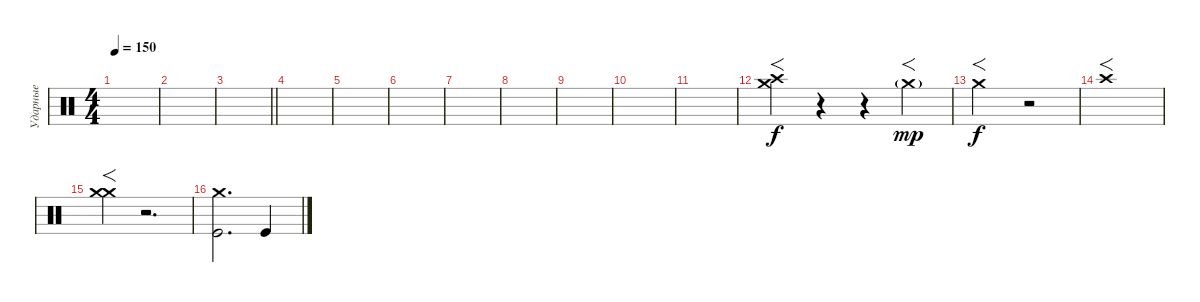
\track ("Ударные" "Ударные") {instrument percussion}
\staff {score}
\articulation defaults
\ts (4 4)
\tempo 150
\clef neutral
\ks c
|
|
\barLineRight lightlight
|
|
|
|
|
|
|
|
|
("Crash high (hit)" "Crash medium (hit)").4{f} r.4 r.4 "Crash medium (hit)"{g}.4{f dy mp} |
"Crash medium (hit)".2{f dy f} r.2 |
"Crash high (hit)".1{f} |
("Crash medium (hit)" "Crash medium (hit)").4{f} r.2{d} |
("Crash medium (hit)" "Kick (hit)").2{d} "Kick (hit)".4
